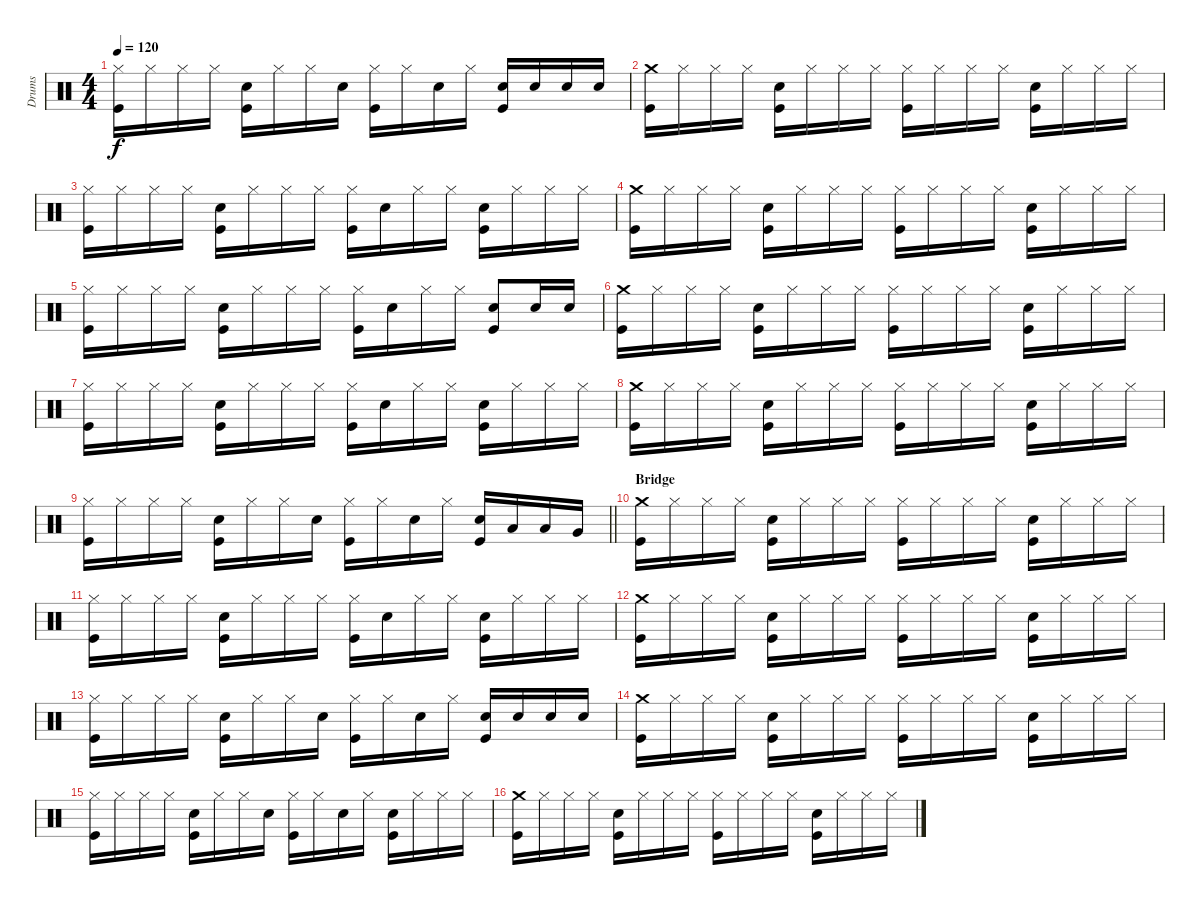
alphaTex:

\track ("Drums" "Drums") {instrument percussion}
\staff {score}
\articulation defaults
\ts (4 4)
\tempo 120
\clef neutral
\ks c
("Hi-Hat (closed)" "Kick (hit)").16{dy f} "Hi-Hat (closed)".16 "Hi-Hat (closed)".16 "Hi-Hat (closed)".16 ("Kick (hit)" "Snare (hit) 2").16 "Hi-Hat (closed)".16 "Hi-Hat (closed)".16 "Snare (hit) 2".16 ("Hi-Hat (closed)" "Kick (hit)").16 "Hi-Hat (closed)".16 "Snare (hit) 2".16 "Hi-Hat (closed)".16 ("Kick (hit)" "Snare (hit) 2").16 "Snare (hit) 2".16 "Snare (hit) 2".16 "Snare (hit) 2".16 |
("Crash medium (hit)" "Kick (hit)").16 "Hi-Hat (closed)".16 "Hi-Hat (closed)".16 "Hi-Hat (closed)".16 ("Kick (hit)" "Snare (hit) 2").16 "Hi-Hat (closed)".16 "Hi-Hat (closed)".16 "Hi-Hat (closed)".16 ("Hi-Hat (closed)" "Kick (hit)").16 "Hi-Hat (closed)".16 "Hi-Hat (closed)".16 "Hi-Hat (closed)".16 ("Kick (hit)" "Snare (hit) 2").16 "Hi-Hat (closed)".16 "Hi-Hat (closed)".16 "Hi-Hat (closed)".16 |
("Hi-Hat (closed)" "Kick (hit)").16 "Hi-Hat (closed)".16 "Hi-Hat (closed)".16 "Hi-Hat (closed)".16 ("Kick (hit)" "Snare (hit) 2").16 "Hi-Hat (closed)".16 "Hi-Hat (closed)".16 "Hi-Hat (closed)".16 ("Hi-Hat (closed)" "Kick (hit)").16 "Snare (hit) 2".16 "Hi-Hat (closed)".16 "Hi-Hat (closed)".16 ("Kick (hit)" "Snare (hit) 2").16 "Hi-Hat (closed)".16 "Hi-Hat (closed)".16 "Hi-Hat (closed)".16 |
("Crash medium (hit)" "Kick (hit)").16 "Hi-Hat (closed)".16 "Hi-Hat (closed)".16 "Hi-Hat (closed)".16 ("Kick (hit)" "Snare (hit) 2").16 "Hi-Hat (closed)".16 "Hi-Hat (closed)".16 "Hi-Hat (closed)".16 ("Hi-Hat (closed)" "Kick (hit)").16 "Hi-Hat (closed)".16 "Hi-Hat (closed)".16 "Hi-Hat (closed)".16 ("Kick (hit)" "Snare (hit) 2").16 "Hi-Hat (closed)".16 "Hi-Hat (closed)".16 "Hi-Hat (closed)".16 |
("Hi-Hat (closed)" "Kick (hit)").16 "Hi-Hat (closed)".16 "Hi-Hat (closed)".16 "Hi-Hat (closed)".16 ("Kick (hit)" "Snare (hit) 2").16 "Hi-Hat (closed)".16 "Hi-Hat (closed)".16 "Hi-Hat (closed)".16 ("Hi-Hat (closed)" "Kick (hit)").16 "Snare (hit) 2".16 "Hi-Hat (closed)".16 "Hi-Hat (closed)".16 ("Kick (hit)" "Snare (hit) 2").8 "Snare (hit) 2".16 "Snare (hit) 2".16 |
("Crash medium (hit)" "Kick (hit)").16 "Hi-Hat (closed)".16 "Hi-Hat (closed)".16 "Hi-Hat (closed)".16 ("Kick (hit)" "Snare (hit) 2").16 "Hi-Hat (closed)".16 "Hi-Hat (closed)".16 "Hi-Hat (closed)".16 ("Hi-Hat (closed)" "Kick (hit)").16 "Hi-Hat (closed)".16 "Hi-Hat (closed)".16 "Hi-Hat (closed)".16 ("Kick (hit)" "Snare (hit) 2").16 "Hi-Hat (closed)".16 "Hi-Hat (closed)".16 "Hi-Hat (closed)".16 |
("Hi-Hat (closed)" "Kick (hit)").16 "Hi-Hat (closed)".16 "Hi-Hat (closed)".16 "Hi-Hat (closed)".16 ("Kick (hit)" "Snare (hit) 2").16 "Hi-Hat (closed)".16 "Hi-Hat (closed)".16 "Hi-Hat (closed)".16 ("Hi-Hat (closed)" "Kick (hit)").16 "Snare (hit) 2".16 "Hi-Hat (closed)".16 "Hi-Hat (closed)".16 ("Kick (hit)" "Snare (hit) 2").16 "Hi-Hat (closed)".16 "Hi-Hat (closed)".16 "Hi-Hat (closed)".16 |
("Crash medium (hit)" "Kick (hit)").16 "Hi-Hat (closed)".16 "Hi-Hat (closed)".16 "Hi-Hat (closed)".16 ("Kick (hit)" "Snare (hit) 2").16 "Hi-Hat (closed)".16 "Hi-Hat (closed)".16 "Hi-Hat (closed)".16 ("Hi-Hat (closed)" "Kick (hit)").16 "Hi-Hat (closed)".16 "Hi-Hat (closed)".16 "Hi-Hat (closed)".16 ("Kick (hit)" "Snare (hit) 2").16 "Hi-Hat (closed)".16 "Hi-Hat (closed)".16 "Hi-Hat (closed)".16 |
\barLineRight lightlight
("Hi-Hat (closed)" "Kick (hit)").16 "Hi-Hat (closed)".16 "Hi-Hat (closed)".16 "Hi-Hat (closed)".16 ("Kick (hit)" "Snare (hit) 2").16 "Hi-Hat (closed)".16 "Hi-Hat (closed)".16 "Snare (hit) 2".16 ("Hi-Hat (closed)" "Kick (hit)").16 "Hi-Hat (closed)".16 "Snare (hit) 2".16 "Hi-Hat (closed)".16 ("Kick (hit)" "Snare (hit) 2").16 "Low Tom (hit)".16 "Low Tom (hit)".16 "Very Low Tom (hit)".16 |
\section ("" "Bridge")
("Crash medium (hit)" "Kick (hit)").16 "Hi-Hat (closed)".16 "Hi-Hat (closed)".16 "Hi-Hat (closed)".16 ("Kick (hit)" "Snare (hit) 2").16 "Hi-Hat (closed)".16 "Hi-Hat (closed)".16 "Hi-Hat (closed)".16 ("Hi-Hat (closed)" "Kick (hit)").16 "Hi-Hat (closed)".16 "Hi-Hat (closed)".16 "Hi-Hat (closed)".16 ("Kick (hit)" "Snare (hit) 2").16 "Hi-Hat (closed)".16 "Hi-Hat (closed)".16 "Hi-Hat (closed)".16 |
("Hi-Hat (closed)" "Kick (hit)").16 "Hi-Hat (closed)".16 "Hi-Hat (closed)".16 "Hi-Hat (closed)".16 ("Kick (hit)" "Snare (hit) 2").16 "Hi-Hat (closed)".16 "Hi-Hat (closed)".16 "Hi-Hat (closed)".16 ("Hi-Hat (closed)" "Kick (hit)").16 "Snare (hit) 2".16 "Hi-Hat (closed)".16 "Hi-Hat (closed)".16 ("Kick (hit)" "Snare (hit) 2").16 "Hi-Hat (closed)".16 "Hi-Hat (closed)".16 "Hi-Hat (closed)".16 |
("Crash medium (hit)" "Kick (hit)").16 "Hi-Hat (closed)".16 "Hi-Hat (closed)".16 "Hi-Hat (closed)".16 ("Kick (hit)" "Snare (hit) 2").16 "Hi-Hat (closed)".16 "Hi-Hat (closed)".16 "Hi-Hat (closed)".16 ("Hi-Hat (closed)" "Kick (hit)").16 "Hi-Hat (closed)".16 "Hi-Hat (closed)".16 "Hi-Hat (closed)".16 ("Kick (hit)" "Snare (hit) 2").16 "Hi-Hat (closed)".16 "Hi-Hat (closed)".16 "Hi-Hat (closed)".16 |
("Hi-Hat (closed)" "Kick (hit)").16 "Hi-Hat (closed)".16 "Hi-Hat (closed)".16 "Hi-Hat (closed)".16 ("Kick (hit)" "Snare (hit) 2").16 "Hi-Hat (closed)".16 "Hi-Hat (closed)".16 "Snare (hit) 2".16 ("Hi-Hat (closed)" "Kick (hit)").16 "Hi-Hat (closed)".16 "Snare (hit) 2".16 "Hi-Hat (closed)".16 ("Kick (hit)" "Snare (hit) 2").16 "Snare (hit) 2".16 "Snare (hit) 2".16 "Snare (hit) 2".16 |
("Crash medium (hit)" "Kick (hit)").16 "Hi-Hat (closed)".16 "Hi-Hat (closed)".16 "Hi-Hat (closed)".16 ("Kick (hit)" "Snare (hit) 2").16 "Hi-Hat (closed)".16 "Hi-Hat (closed)".16 "Hi-Hat (closed)".16 ("Hi-Hat (closed)" "Kick (hit)").16 "Hi-Hat (closed)".16 "Hi-Hat (closed)".16 "Hi-Hat (closed)".16 ("Kick (hit)" "Snare (hit) 2").16 "Hi-Hat (closed)".16 "Hi-Hat (closed)".16 "Hi-Hat (closed)".16 |
("Hi-Hat (closed)" "Kick (hit)").16 "Hi-Hat (closed)".16 "Hi-Hat (closed)".16 "Hi-Hat (closed)".16 ("Kick (hit)" "Snare (hit) 2").16 "Hi-Hat (closed)".16 "Hi-Hat (closed)".16 "Snare (hit) 2".16 ("Hi-Hat (closed)" "Kick (hit)").16 "Hi-Hat (closed)".16 "Snare (hit) 2".16 "Hi-Hat (closed)".16 ("Kick (hit)" "Snare (hit) 2").16 "Hi-Hat (closed)".16 "Hi-Hat (closed)".16 "Hi-Hat (closed)".16 |
("Crash medium (hit)" "Kick (hit)").16 "Hi-Hat (closed)".16 "Hi-Hat (closed)".16 "Hi-Hat (closed)".16 ("Kick (hit)" "Snare (hit) 2").16 "Hi-Hat (closed)".16 "Hi-Hat (closed)".16 "Hi-Hat (closed)".16 ("Hi-Hat (closed)" "Kick (hit)").16 "Hi-Hat (closed)".16 "Hi-Hat (closed)".16 "Hi-Hat (closed)".16 ("Kick (hit)" "Snare (hit) 2").16 "Hi-Hat (closed)".16 "Hi-Hat (closed)".16 "Hi-Hat (closed)".16
